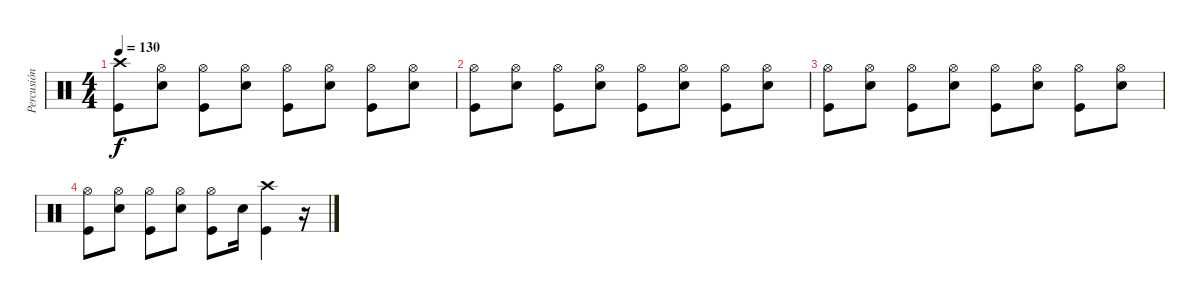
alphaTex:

\track ("Percusión" "Percusión") {instrument percussion}
\staff {score}
\articulation defaults
\ts (4 4)
\tempo 130
\clef neutral
\ks c
("Crash high (hit)" "Kick (hit)").8{dy f} ("Hi-Hat (open)" "Electric Snare (hit)").8 ("Hi-Hat (open)" "Kick (hit)").8 ("Hi-Hat (open)" "Electric Snare (hit)").8 ("Hi-Hat (open)" "Kick (hit)").8 ("Hi-Hat (open)" "Electric Snare (hit)").8 ("Hi-Hat (open)" "Kick (hit)").8 ("Hi-Hat (open)" "Electric Snare (hit)").8 |
("Hi-Hat (open)" "Kick (hit)").8 ("Hi-Hat (open)" "Electric Snare (hit)").8 ("Hi-Hat (open)" "Kick (hit)").8 ("Hi-Hat (open)" "Electric Snare (hit)").8 ("Hi-Hat (open)" "Kick (hit)").8 ("Hi-Hat (open)" "Electric Snare (hit)").8 ("Hi-Hat (open)" "Kick (hit)").8 ("Hi-Hat (open)" "Electric Snare (hit)").8 |
("Hi-Hat (open)" "Kick (hit)").8 ("Hi-Hat (open)" "Electric Snare (hit)").8 ("Hi-Hat (open)" "Kick (hit)").8 ("Hi-Hat (open)" "Electric Snare (hit)").8 ("Hi-Hat (open)" "Kick (hit)").8 ("Hi-Hat (open)" "Electric Snare (hit)").8 ("Hi-Hat (open)" "Kick (hit)").8 ("Hi-Hat (open)" "Electric Snare (hit)").8 |
("Hi-Hat (open)" "Kick (hit)").8 ("Hi-Hat (open)" "Electric Snare (hit)").8 ("Hi-Hat (open)" "Kick (hit)").8 ("Hi-Hat (open)" "Electric Snare (hit)").8 ("Hi-Hat (open)" "Kick (hit)").8 "Electric Snare (hit)".16 ("Crash high (hit)" "Kick (hit)").4 r.16
